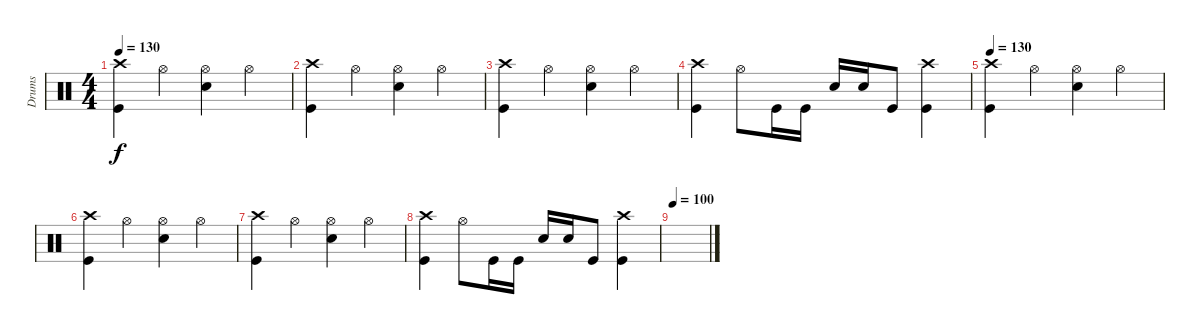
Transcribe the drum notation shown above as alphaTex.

\track ("Drums" "Drums") {instrument percussion}
\staff {score}
\articulation defaults
\ts (4 4)
\tempo 130
\clef neutral
\ks c
("Crash high (hit)" "Kick (hit)").4{dy f} "Hi-Hat (open)".4 ("Hi-Hat (open)" "Electric Snare (hit)").4 "Hi-Hat (open)".4 |
("Crash high (hit)" "Kick (hit)").4 "Hi-Hat (open)".4 ("Hi-Hat (open)" "Electric Snare (hit)").4 "Hi-Hat (open)".4 |
("Crash high (hit)" "Kick (hit)").4 "Hi-Hat (open)".4 ("Hi-Hat (open)" "Electric Snare (hit)").4 "Hi-Hat (open)".4 |
("Crash high (hit)" "Kick (hit)").4 "Hi-Hat (open)".8 "Kick (hit)".16 "Kick (hit)".16 "Electric Snare (hit)".16 "Electric Snare (hit)".16 "Kick (hit)".8 ("Crash high (hit)" "Kick (hit)").4 |
\tempo 130
("Crash high (hit)" "Kick (hit)").4 "Hi-Hat (open)".4 ("Hi-Hat (open)" "Electric Snare (hit)").4 "Hi-Hat (open)".4 |
("Crash high (hit)" "Kick (hit)").4 "Hi-Hat (open)".4 ("Hi-Hat (open)" "Electric Snare (hit)").4 "Hi-Hat (open)".4 |
("Crash high (hit)" "Kick (hit)").4 "Hi-Hat (open)".4 ("Hi-Hat (open)" "Electric Snare (hit)").4 "Hi-Hat (open)".4 |
("Crash high (hit)" "Kick (hit)").4 "Hi-Hat (open)".8 "Kick (hit)".16 "Kick (hit)".16 "Electric Snare (hit)".16 "Electric Snare (hit)".16 "Kick (hit)".8 ("Crash high (hit)" "Kick (hit)").4 |
\tempo 100
